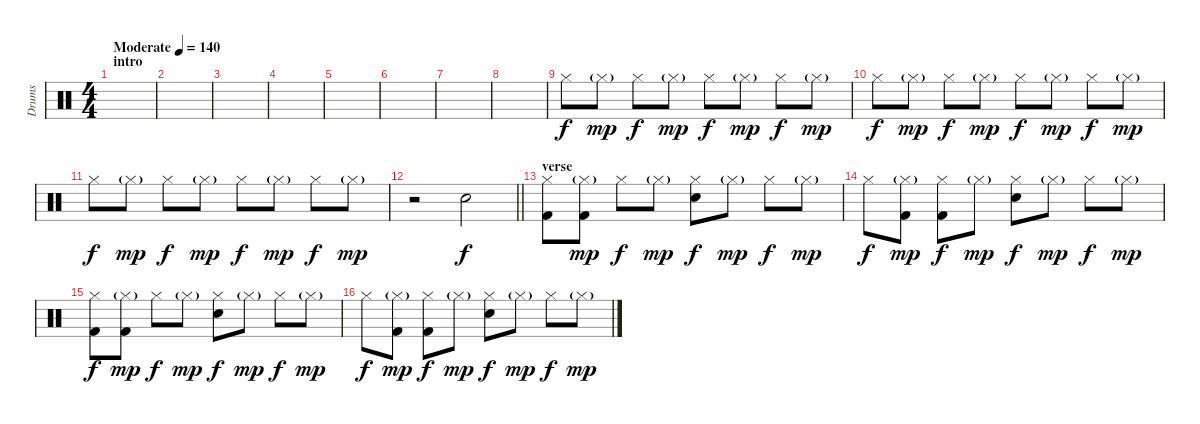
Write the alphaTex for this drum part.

\track ("Drums" "Drums") {instrument percussion}
\staff {score}
\articulation defaults
\ts (4 4)
\section ("" "intro")
\tempo (140 "Moderate")
\clef neutral
\ks c
|
|
|
|
|
|
|
|
"Hi-Hat (closed)".8 "Hi-Hat (closed)"{g}.8{dy mp} "Hi-Hat (closed)".8{dy f} "Hi-Hat (closed)"{g}.8{dy mp} "Hi-Hat (closed)".8{dy f} "Hi-Hat (closed)"{g}.8{dy mp} "Hi-Hat (closed)".8{dy f} "Hi-Hat (closed)"{g}.8{dy mp} |
"Hi-Hat (closed)".8{dy f} "Hi-Hat (closed)"{g}.8{dy mp} "Hi-Hat (closed)".8{dy f} "Hi-Hat (closed)"{g}.8{dy mp} "Hi-Hat (closed)".8{dy f} "Hi-Hat (closed)"{g}.8{dy mp} "Hi-Hat (closed)".8{dy f} "Hi-Hat (closed)"{g}.8{dy mp} |
"Hi-Hat (closed)".8{dy f} "Hi-Hat (closed)"{g}.8{dy mp} "Hi-Hat (closed)".8{dy f} "Hi-Hat (closed)"{g}.8{dy mp} "Hi-Hat (closed)".8{dy f} "Hi-Hat (closed)"{g}.8{dy mp} "Hi-Hat (closed)".8{dy f} "Hi-Hat (closed)"{g}.8{dy mp} |
\barLineRight lightlight
r.2 "Electric Snare (hit)".2{dy f} |
\section ("" "verse")
("Hi-Hat (closed)" "Kick (hit) 2").8 ("Hi-Hat (closed)"{g} "Kick (hit) 2").8{dy mp} "Hi-Hat (closed)".8{dy f} "Hi-Hat (closed)"{g}.8{dy mp} ("Hi-Hat (closed)" "Electric Snare (hit)").8{dy f} "Hi-Hat (closed)"{g}.8{dy mp} "Hi-Hat (closed)".8{dy f} "Hi-Hat (closed)"{g}.8{dy mp} |
"Hi-Hat (closed)".8{dy f} ("Hi-Hat (closed)"{g} "Kick (hit) 2").8{dy mp} ("Hi-Hat (closed)" "Kick (hit) 2").8{dy f} "Hi-Hat (closed)"{g}.8{dy mp} ("Hi-Hat (closed)" "Electric Snare (hit)").8{dy f} "Hi-Hat (closed)"{g}.8{dy mp} "Hi-Hat (closed)".8{dy f} "Hi-Hat (closed)"{g}.8{dy mp} |
("Hi-Hat (closed)" "Kick (hit) 2").8{dy f} ("Hi-Hat (closed)"{g} "Kick (hit) 2").8{dy mp} "Hi-Hat (closed)".8{dy f} "Hi-Hat (closed)"{g}.8{dy mp} ("Hi-Hat (closed)" "Electric Snare (hit)").8{dy f} "Hi-Hat (closed)"{g}.8{dy mp} "Hi-Hat (closed)".8{dy f} "Hi-Hat (closed)"{g}.8{dy mp} |
"Hi-Hat (closed)".8{dy f} ("Hi-Hat (closed)"{g} "Kick (hit) 2").8{dy mp} ("Hi-Hat (closed)" "Kick (hit) 2").8{dy f} "Hi-Hat (closed)"{g}.8{dy mp} ("Hi-Hat (closed)" "Electric Snare (hit)").8{dy f} "Hi-Hat (closed)"{g}.8{dy mp} "Hi-Hat (closed)".8{dy f} "Hi-Hat (closed)"{g}.8{dy mp}
